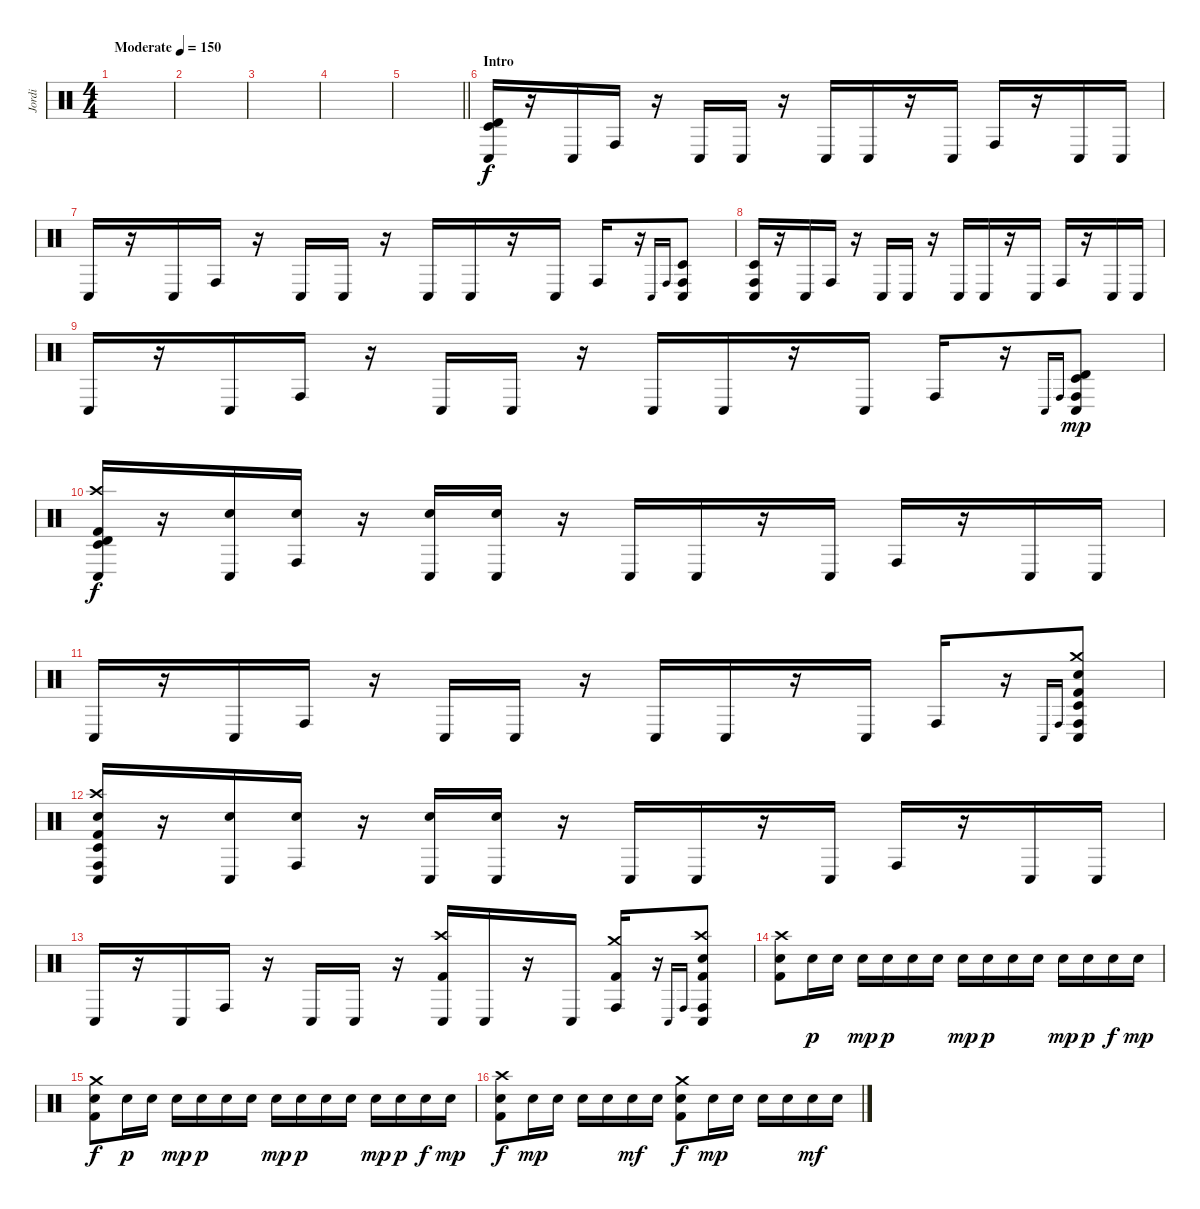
\track ("Jordi" "Jordi") {instrument percussion}
\staff {score}
\articulation defaults
\ts (4 4)
\tempo (150 "Moderate")
\clef neutral
\ks c
|
|
|
|
\barLineRight lightlight
|
\section ("" "Intro")
("Conga low (hit)" "Timbale high (hit)" "Timbale low (hit)").16 r.16 "Conga low (hit)".16 "Conga high (hit)".16 r.16 "Conga low (hit)".16 "Conga low (hit)".16 r.16 "Conga low (hit)".16 "Conga low (hit)".16 r.16 "Conga low (hit)".16 "Conga high (hit)".16 r.16 "Conga low (hit)".16 "Conga low (hit)".16 |
"Conga low (hit)".16 r.16 "Conga low (hit)".16 "Conga high (hit)".16 r.16 "Conga low (hit)".16 "Conga low (hit)".16 r.16 "Conga low (hit)".16 "Conga low (hit)".16 r.16 "Conga low (hit)".16 "Conga high (hit)".16 r.16 "Conga low (hit)".16{gr onbeat} "Conga high (hit)".16{gr onbeat} ("Conga low (hit)" "Conga high (hit)" "Timbale low (hit)").8 |
("Conga low (hit)" "Conga high (hit)" "Timbale low (hit)").16 r.16 "Conga low (hit)".16 "Conga high (hit)".16 r.16 "Conga low (hit)".16 "Conga low (hit)".16 r.16 "Conga low (hit)".16 "Conga low (hit)".16 r.16 "Conga low (hit)".16 "Conga high (hit)".16 r.16 "Conga low (hit)".16 "Conga low (hit)".16 |
"Conga low (hit)".16 r.16 "Conga low (hit)".16 "Conga high (hit)".16 r.16 "Conga low (hit)".16 "Conga low (hit)".16 r.16 "Conga low (hit)".16 "Conga low (hit)".16 r.16 "Conga low (hit)".16 "Conga high (hit)".16 r.16 "Conga low (hit)".16{gr onbeat} "Conga high (hit)".16{gr onbeat} ("Conga low (hit)" "Conga high (hit)" "Timbale high (hit)" "Timbale low (hit)").8{dy mp} |
("Crash high (hit)" "Conga low (hit)" "Timbale high (hit)" "Timbale low (hit)" "Kick (hit) 2").16{dy f} r.16 ("Conga low (hit)" "Snare (hit) 2").16 ("Conga high (hit)" "Snare (hit) 2").16 r.16 ("Conga low (hit)" "Snare (hit) 2").16 ("Conga low (hit)" "Snare (hit) 2").16 r.16 "Conga low (hit)".16 "Conga low (hit)".16 r.16 "Conga low (hit)".16 "Conga high (hit)".16 r.16 "Conga low (hit)".16 "Conga low (hit)".16 |
"Conga low (hit)".16 r.16 "Conga low (hit)".16 "Conga high (hit)".16 r.16 "Conga low (hit)".16 "Conga low (hit)".16 r.16 "Conga low (hit)".16 "Conga low (hit)".16 r.16 "Conga low (hit)".16 "Conga high (hit)".16 r.16 "Conga low (hit)".16{gr onbeat} "Conga high (hit)".16{gr onbeat} ("Crash medium (hit)" "Conga low (hit)" "Conga high (hit)" "Snare (hit) 2" "Timbale low (hit)" "Kick (hit) 2").8 |
("Crash high (hit)" "Conga low (hit)" "Conga high (hit)" "Timbale low (hit)" "Snare (hit) 2" "Kick (hit) 2").16 r.16 ("Conga low (hit)" "Snare (hit) 2").16 ("Conga high (hit)" "Snare (hit) 2").16 r.16 ("Conga low (hit)" "Snare (hit) 2").16 ("Conga low (hit)" "Snare (hit) 2").16 r.16 "Conga low (hit)".16 "Conga low (hit)".16 r.16 "Conga low (hit)".16 "Conga high (hit)".16 r.16 "Conga low (hit)".16 "Conga low (hit)".16 |
"Conga low (hit)".16 r.16 "Conga low (hit)".16 "Conga high (hit)".16 r.16 "Conga low (hit)".16 "Conga low (hit)".16 r.16 ("Crash high (hit)" "Conga low (hit)" "Kick (hit) 2").16 "Conga low (hit)".16 r.16 "Conga low (hit)".16 ("Crash medium (hit)" "Conga high (hit)" "Kick (hit) 2").16 r.16 "Conga low (hit)".16{gr onbeat} "Conga high (hit)".16{gr onbeat} ("Crash high (hit)" "Conga low (hit)" "Conga high (hit)" "Snare (hit) 2" "Kick (hit) 2").8 |
("Crash high (hit)" "Snare (hit) 2" "Kick (hit) 2").8 "Snare (hit) 2".16{dy p} "Snare (hit) 2".16 "Snare (hit) 2".16{dy mp} "Snare (hit) 2".16{dy p} "Snare (hit) 2".16 "Snare (hit) 2".16 "Snare (hit) 2".16{dy mp} "Snare (hit) 2".16{dy p} "Snare (hit) 2".16 "Snare (hit) 2".16 "Snare (hit) 2".16{dy mp} "Snare (hit) 2".16{dy p} "Snare (hit) 2".16{dy f} "Snare (hit) 2".16{dy mp} |
("Crash medium (hit)" "Snare (hit) 2" "Kick (hit) 2").8{dy f} "Snare (hit) 2".16{dy p} "Snare (hit) 2".16 "Snare (hit) 2".16{dy mp} "Snare (hit) 2".16{dy p} "Snare (hit) 2".16 "Snare (hit) 2".16 "Snare (hit) 2".16{dy mp} "Snare (hit) 2".16{dy p} "Snare (hit) 2".16 "Snare (hit) 2".16 "Snare (hit) 2".16{dy mp} "Snare (hit) 2".16{dy p} "Snare (hit) 2".16{dy f} "Snare (hit) 2".16{dy mp} |
("Crash high (hit)" "Snare (hit) 2" "Kick (hit) 2").8{dy f} "Snare (hit) 2".16{dy mp} "Snare (hit) 2".16 "Snare (hit) 2".16 "Snare (hit) 2".16 "Snare (hit) 2".16{dy mf} "Snare (hit) 2".16 ("Crash medium (hit)" "Snare (hit) 2" "Kick (hit) 2").8{dy f} "Snare (hit) 2".16{dy mp} "Snare (hit) 2".16 "Snare (hit) 2".16 "Snare (hit) 2".16 "Snare (hit) 2".16{dy mf} "Snare (hit) 2".16
